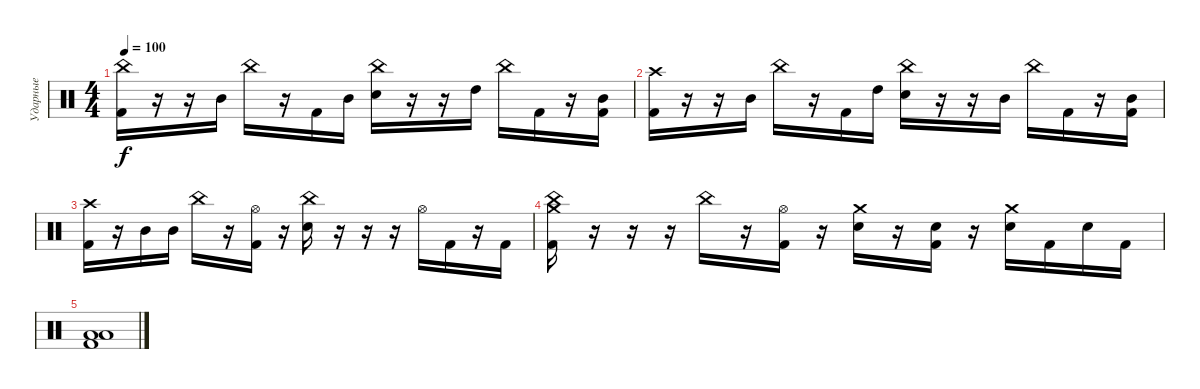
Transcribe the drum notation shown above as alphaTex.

\track ("Ударные" "Ударные") {instrument percussion}
\staff {score}
\articulation defaults
\ts (4 4)
\tempo 100
\clef neutral
\ks c
("China (hit)" "Kick (hit) 2").16{dy f} r.16 r.16 "Mid Tom (hit)".16 "China (hit)".16 r.16 "Kick (hit) 2".16 "Mid Tom (hit)".16 ("China (hit)" "Snare (hit) 2").16 r.16 r.16 "High Tom (hit)".16 "China (hit)".16 "Kick (hit) 2".16 r.16 ("Mid Tom (hit)" "Kick (hit) 2").16 |
("Crash high (hit)" "Kick (hit) 2").16 r.16 r.16 "Mid Tom (hit)".16 "China (hit)".16 r.16 "Kick (hit) 2".16 "High Tom (hit)".16 ("China (hit)" "Snare (hit) 2").16 r.16 r.16 "Mid Tom (hit)".16 "China (hit)".16 "Kick (hit) 2".16 r.16 ("Mid Tom (hit)" "Kick (hit) 2").16 |
("Crash high (hit)" "Kick (hit) 2").16 r.16 "Mid Tom (hit)".16 "Mid Tom (hit)".16 "China (hit)".16 r.16 ("Hi-Hat (open)" "Kick (hit) 2").16 r.16 ("China (hit)" "Snare (hit) 2").16 r.16 r.16 r.16 "Hi-Hat (open)".16 "Kick (hit) 2".16 r.16 "Kick (hit) 2".16 |
("China (hit)" "Crash medium (hit)" "Kick (hit) 2").16 r.16 r.16 r.16 "China (hit)".16 r.16 ("Hi-Hat (open)" "Kick (hit) 2").16 r.16 ("Crash medium (hit)" "Snare (hit) 2").16 r.16 ("Snare (hit) 2" "Kick (hit) 2").16 r.16 ("Crash medium (hit)" "Snare (hit) 2").16 "Kick (hit) 2".16 "Snare (hit) 2".16 "Kick (hit) 2".16 |
("Low Tom (hit)" "Low Floor Tom (hit)" "Kick (hit) 2").1
